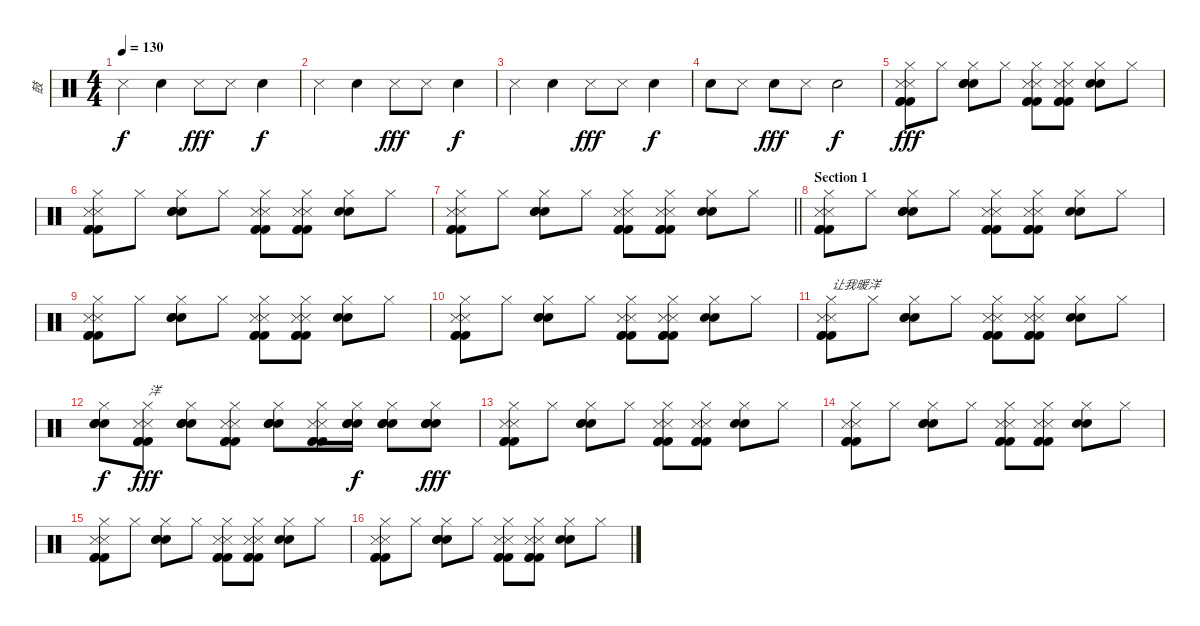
\track ("鼓" "鼓") {instrument percussion}
\staff {score}
\articulation defaults
\ts (4 4)
\tempo 130
\clef neutral
\ks c "Metronome (hit)".4{dy f} "Hand Clap (hit)".4 "Metronome (hit)".8{dy fff} "Metronome (hit)".8 "Hand Clap (hit)".4{dy f}
|
"Metronome (hit)".4 "Hand Clap (hit)".4 "Metronome (hit)".8{dy fff} "Metronome (hit)".8 "Hand Clap (hit)".4{dy f} |
"Metronome (hit)".4 "Hand Clap (hit)".4 "Metronome (hit)".8{dy fff} "Metronome (hit)".8 "Hand Clap (hit)".4{dy f} |
"Hand Clap (hit)".8 "Metronome (hit)".8 "Hand Clap (hit)".8{dy fff} "Metronome (hit)".8 "Hand Clap (hit)".2{dy f} |
("Metronome (hit)" "Metronome (hit)" "Kick (hit) 2" "Kick (hit) 2" "Kick (hit) 2" "Hi-Hat (closed)").8{dy fff} "Hi-Hat (closed)".8 ("Electric Snare (hit)" "Electric Snare (hit)" "Electric Snare (hit)" "Hi-Hat (closed)").8 "Hi-Hat (closed)".8 ("Metronome (hit)" "Metronome (hit)" "Kick (hit) 2" "Kick (hit) 2" "Kick (hit) 2" "Hi-Hat (closed)").8 ("Metronome (hit)" "Metronome (hit)" "Kick (hit) 2" "Kick (hit) 2" "Kick (hit) 2" "Hi-Hat (closed)").8 ("Electric Snare (hit)" "Electric Snare (hit)" "Hi-Hat (closed)").8 "Hi-Hat (closed)".8 |
("Metronome (hit)" "Metronome (hit)" "Kick (hit) 2" "Kick (hit) 2" "Kick (hit) 2" "Hi-Hat (closed)").8 "Hi-Hat (closed)".8 ("Electric Snare (hit)" "Electric Snare (hit)" "Electric Snare (hit)" "Hi-Hat (closed)").8 "Hi-Hat (closed)".8 ("Metronome (hit)" "Metronome (hit)" "Kick (hit) 2" "Kick (hit) 2" "Kick (hit) 2" "Hi-Hat (closed)").8 ("Metronome (hit)" "Metronome (hit)" "Kick (hit) 2" "Kick (hit) 2" "Kick (hit) 2" "Hi-Hat (closed)").8 ("Electric Snare (hit)" "Electric Snare (hit)" "Hi-Hat (closed)").8 "Hi-Hat (closed)".8 |
\barLineRight lightlight
("Metronome (hit)" "Metronome (hit)" "Kick (hit) 2" "Kick (hit) 2" "Kick (hit) 2" "Hi-Hat (closed)").8 "Hi-Hat (closed)".8 ("Electric Snare (hit)" "Electric Snare (hit)" "Electric Snare (hit)" "Hi-Hat (closed)").8 "Hi-Hat (closed)".8 ("Metronome (hit)" "Metronome (hit)" "Kick (hit) 2" "Kick (hit) 2" "Kick (hit) 2" "Hi-Hat (closed)").8 ("Metronome (hit)" "Metronome (hit)" "Kick (hit) 2" "Kick (hit) 2" "Kick (hit) 2" "Hi-Hat (closed)").8 ("Electric Snare (hit)" "Electric Snare (hit)" "Hi-Hat (closed)").8 "Hi-Hat (closed)".8 |
\section ("" "Section 1")
("Metronome (hit)" "Metronome (hit)" "Kick (hit) 2" "Kick (hit) 2" "Kick (hit) 2" "Hi-Hat (closed)").8 "Hi-Hat (closed)".8 ("Electric Snare (hit)" "Electric Snare (hit)" "Electric Snare (hit)" "Hi-Hat (closed)").8 "Hi-Hat (closed)".8 ("Metronome (hit)" "Metronome (hit)" "Kick (hit) 2" "Kick (hit) 2" "Kick (hit) 2" "Hi-Hat (closed)").8 ("Metronome (hit)" "Metronome (hit)" "Kick (hit) 2" "Kick (hit) 2" "Kick (hit) 2" "Hi-Hat (closed)").8 ("Electric Snare (hit)" "Electric Snare (hit)" "Hi-Hat (closed)").8 "Hi-Hat (closed)".8 |
("Metronome (hit)" "Metronome (hit)" "Kick (hit) 2" "Kick (hit) 2" "Kick (hit) 2" "Hi-Hat (closed)").8 "Hi-Hat (closed)".8 ("Electric Snare (hit)" "Electric Snare (hit)" "Electric Snare (hit)" "Hi-Hat (closed)").8 "Hi-Hat (closed)".8 ("Metronome (hit)" "Metronome (hit)" "Kick (hit) 2" "Kick (hit) 2" "Kick (hit) 2" "Hi-Hat (closed)").8 ("Metronome (hit)" "Metronome (hit)" "Kick (hit) 2" "Kick (hit) 2" "Kick (hit) 2" "Hi-Hat (closed)").8 ("Electric Snare (hit)" "Electric Snare (hit)" "Hi-Hat (closed)").8 "Hi-Hat (closed)".8 |
("Metronome (hit)" "Metronome (hit)" "Kick (hit) 2" "Kick (hit) 2" "Kick (hit) 2" "Hi-Hat (closed)").8 "Hi-Hat (closed)".8 ("Electric Snare (hit)" "Electric Snare (hit)" "Electric Snare (hit)" "Hi-Hat (closed)").8 "Hi-Hat (closed)".8 ("Metronome (hit)" "Metronome (hit)" "Kick (hit) 2" "Kick (hit) 2" "Kick (hit) 2" "Hi-Hat (closed)").8 ("Metronome (hit)" "Metronome (hit)" "Kick (hit) 2" "Kick (hit) 2" "Kick (hit) 2" "Hi-Hat (closed)").8 ("Electric Snare (hit)" "Electric Snare (hit)" "Hi-Hat (closed)").8 "Hi-Hat (closed)".8 |
("Metronome (hit)" "Metronome (hit)" "Kick (hit) 2" "Kick (hit) 2" "Kick (hit) 2" "Hi-Hat (closed)").8{txt "让我暖洋"} "Hi-Hat (closed)".8 ("Electric Snare (hit)" "Electric Snare (hit)" "Electric Snare (hit)" "Hi-Hat (closed)").8 "Hi-Hat (closed)".8 ("Metronome (hit)" "Metronome (hit)" "Kick (hit) 2" "Kick (hit) 2" "Kick (hit) 2" "Hi-Hat (closed)").8 ("Metronome (hit)" "Metronome (hit)" "Kick (hit) 2" "Kick (hit) 2" "Kick (hit) 2" "Hi-Hat (closed)").8 ("Electric Snare (hit)" "Electric Snare (hit)" "Hi-Hat (closed)").8 "Hi-Hat (closed)".8 |
("Hand Clap (hit)" "Snare (hit) 2" "Snare (hit) 2" "Snare (hit) 2" "Hi-Hat (closed)").8{dy f} ("Metronome (hit)" "Metronome (hit)" "Kick (hit) 2" "Kick (hit) 2" "Kick (hit) 2" "Hi-Hat (closed)").8{txt "洋" dy fff} ("Hand Clap (hit)" "Snare (hit) 2" "Snare (hit) 2" "Snare (hit) 2" "Hi-Hat (closed)").8 ("Metronome (hit)" "Metronome (hit)" "Kick (hit) 2" "Kick (hit) 2" "Kick (hit) 2" "Hi-Hat (closed)").8 ("Hand Clap (hit)" "Snare (hit) 2" "Snare (hit) 2" "Snare (hit) 2" "Hi-Hat (closed)").8 ("Metronome (hit)" "Metronome (hit)" "Kick (hit) 2" "Kick (hit) 2" "Kick (hit) 2" "Hi-Hat (closed)").16 ("Hand Clap (hit)" "Snare (hit) 2" "Snare (hit) 2" "Snare (hit) 2" "Hi-Hat (closed)").16{dy f} ("Hand Clap (hit)" "Snare (hit) 2" "Snare (hit) 2" "Snare (hit) 2" "Hi-Hat (closed)").8 ("Hand Clap (hit)" "Snare (hit) 2" "Snare (hit) 2" "Snare (hit) 2" "Hi-Hat (closed)").8{dy fff} |
("Metronome (hit)" "Metronome (hit)" "Kick (hit) 2" "Kick (hit) 2" "Kick (hit) 2" "Hi-Hat (closed)").8 "Hi-Hat (closed)".8 ("Electric Snare (hit)" "Electric Snare (hit)" "Electric Snare (hit)" "Hi-Hat (closed)").8 "Hi-Hat (closed)".8 ("Metronome (hit)" "Metronome (hit)" "Kick (hit) 2" "Kick (hit) 2" "Kick (hit) 2" "Hi-Hat (closed)").8 ("Metronome (hit)" "Metronome (hit)" "Kick (hit) 2" "Kick (hit) 2" "Kick (hit) 2" "Hi-Hat (closed)").8 ("Electric Snare (hit)" "Electric Snare (hit)" "Hi-Hat (closed)").8 "Hi-Hat (closed)".8 |
("Metronome (hit)" "Metronome (hit)" "Kick (hit) 2" "Kick (hit) 2" "Kick (hit) 2" "Hi-Hat (closed)").8 "Hi-Hat (closed)".8 ("Electric Snare (hit)" "Electric Snare (hit)" "Electric Snare (hit)" "Hi-Hat (closed)").8 "Hi-Hat (closed)".8 ("Metronome (hit)" "Metronome (hit)" "Kick (hit) 2" "Kick (hit) 2" "Kick (hit) 2" "Hi-Hat (closed)").8 ("Metronome (hit)" "Metronome (hit)" "Kick (hit) 2" "Kick (hit) 2" "Kick (hit) 2" "Hi-Hat (closed)").8 ("Electric Snare (hit)" "Electric Snare (hit)" "Hi-Hat (closed)").8 "Hi-Hat (closed)".8 |
("Metronome (hit)" "Metronome (hit)" "Kick (hit) 2" "Kick (hit) 2" "Kick (hit) 2" "Hi-Hat (closed)").8 "Hi-Hat (closed)".8 ("Electric Snare (hit)" "Electric Snare (hit)" "Electric Snare (hit)" "Hi-Hat (closed)").8 "Hi-Hat (closed)".8 ("Metronome (hit)" "Metronome (hit)" "Kick (hit) 2" "Kick (hit) 2" "Kick (hit) 2" "Hi-Hat (closed)").8 ("Metronome (hit)" "Metronome (hit)" "Kick (hit) 2" "Kick (hit) 2" "Kick (hit) 2" "Hi-Hat (closed)").8 ("Electric Snare (hit)" "Electric Snare (hit)" "Hi-Hat (closed)").8 "Hi-Hat (closed)".8 |
("Metronome (hit)" "Metronome (hit)" "Kick (hit) 2" "Kick (hit) 2" "Kick (hit) 2" "Hi-Hat (closed)").8 "Hi-Hat (closed)".8 ("Electric Snare (hit)" "Electric Snare (hit)" "Electric Snare (hit)" "Hi-Hat (closed)").8 "Hi-Hat (closed)".8 ("Metronome (hit)" "Metronome (hit)" "Kick (hit) 2" "Kick (hit) 2" "Kick (hit) 2" "Hi-Hat (closed)").8 ("Metronome (hit)" "Metronome (hit)" "Kick (hit) 2" "Kick (hit) 2" "Kick (hit) 2" "Hi-Hat (closed)").8 ("Electric Snare (hit)" "Electric Snare (hit)" "Hi-Hat (closed)").8 "Hi-Hat (closed)".8
